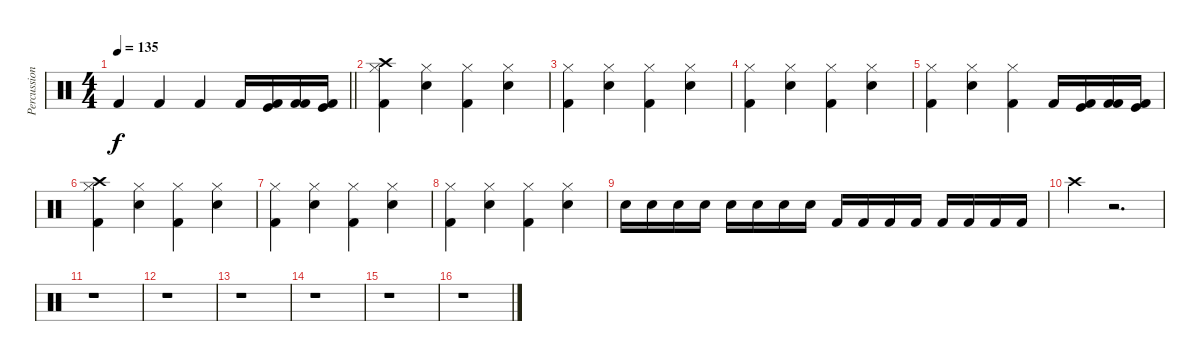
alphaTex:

\track ("Percussion" "Percussion") {instrument percussion}
\staff {score}
\articulation defaults
\ts (4 4)
\tempo 135
\clef neutral
\barLineRight lightlight
\ks c "Kick (hit) 2".4{dy f} "Kick (hit) 2".4 "Kick (hit) 2".4 "Kick (hit) 2".16
("Kick (hit)" "Kick (hit) 2").16 ("Kick (hit) 2" "Kick (hit) 2").16 ("Kick (hit)" "Kick (hit) 2").16 |
("Crash high (hit)" "Kick (hit) 2" "Hi-Hat (closed)").4 ("Snare (hit) 2" "Hi-Hat (closed)").4 ("Kick (hit) 2" "Hi-Hat (closed)").4 ("Snare (hit) 2" "Hi-Hat (closed)").4 |
("Kick (hit) 2" "Hi-Hat (closed)").4 ("Snare (hit) 2" "Hi-Hat (closed)").4 ("Kick (hit) 2" "Hi-Hat (closed)").4 ("Snare (hit) 2" "Hi-Hat (closed)").4 |
("Kick (hit) 2" "Hi-Hat (closed)").4 ("Snare (hit) 2" "Hi-Hat (closed)").4 ("Kick (hit) 2" "Hi-Hat (closed)").4 ("Snare (hit) 2" "Hi-Hat (closed)").4 |
("Kick (hit) 2" "Hi-Hat (closed)").4 ("Snare (hit) 2" "Hi-Hat (closed)").4 ("Kick (hit) 2" "Hi-Hat (closed)").4 "Kick (hit) 2".16 ("Kick (hit)" "Kick (hit) 2").16 ("Kick (hit) 2" "Kick (hit) 2").16 ("Kick (hit)" "Kick (hit) 2").16 |
("Crash high (hit)" "Kick (hit) 2" "Hi-Hat (closed)").4 ("Snare (hit) 2" "Hi-Hat (closed)").4 ("Kick (hit) 2" "Hi-Hat (closed)").4 ("Snare (hit) 2" "Hi-Hat (closed)").4 |
("Kick (hit) 2" "Hi-Hat (closed)").4 ("Snare (hit) 2" "Hi-Hat (closed)").4 ("Kick (hit) 2" "Hi-Hat (closed)").4 ("Snare (hit) 2" "Hi-Hat (closed)").4 |
("Kick (hit) 2" "Hi-Hat (closed)").4 ("Snare (hit) 2" "Hi-Hat (closed)").4 ("Kick (hit) 2" "Hi-Hat (closed)").4 ("Snare (hit) 2" "Hi-Hat (closed)").4 |
"Snare (hit) 2".16 "Snare (hit) 2".16 "Snare (hit) 2".16 "Snare (hit) 2".16 "Snare (hit) 2".16 "Snare (hit) 2".16 "Snare (hit) 2".16 "Snare (hit) 2".16 "Kick (hit) 2".16 "Kick (hit) 2".16 "Kick (hit) 2".16 "Kick (hit) 2".16 "Kick (hit) 2".16 "Kick (hit) 2".16 "Kick (hit) 2".16 "Kick (hit) 2".16 |
"Crash high (hit)".4 r.2{d} |
r.1 |
r.1 |
r.1 |
r.1 |
r.1 |
r.1
